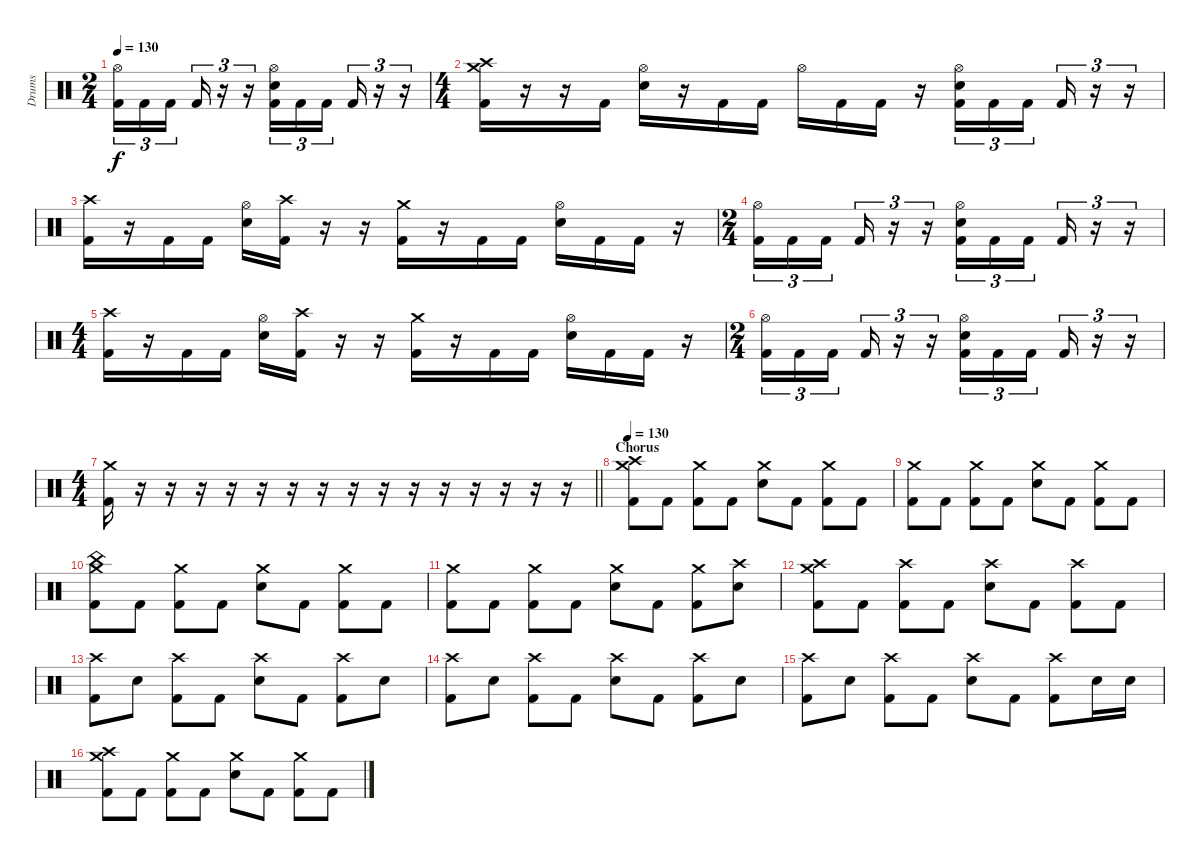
\track ("Drums" "Drums") {instrument percussion}
\staff {score}
\articulation defaults
\ts (2 4)
\tempo 130
\clef neutral
\ks c
("Hi-Hat (open)" "Kick (hit) 2").16{tu (3 2) dy f} "Kick (hit) 2".16{tu (3 2)} "Kick (hit) 2".16{tu (3 2) beam splitsecondary} "Kick (hit) 2".16{tu (3 2)} r.16{tu (3 2)} r.16{tu (3 2)} ("Hi-Hat (open)" "Snare (hit) 2" "Kick (hit) 2").16{tu (3 2)} "Kick (hit) 2".16{tu (3 2)} "Kick (hit) 2".16{tu (3 2) beam splitsecondary} "Kick (hit) 2".16{tu (3 2)} r.16{tu (3 2)} r.16{tu (3 2)} |
\ts (4 4)
("Crash medium (hit)" "Crash high (hit)" "Kick (hit) 2").16 r.16 r.16 "Kick (hit) 2".16 ("Hi-Hat (open)" "Snare (hit) 2").16 r.16 "Kick (hit) 2".16 "Kick (hit) 2".16 "Hi-Hat (open)".16 "Kick (hit) 2".16 "Kick (hit) 2".16 r.16 ("Hi-Hat (open)" "Snare (hit) 2" "Kick (hit) 2").16{tu (3 2)} "Kick (hit) 2".16{tu (3 2)} "Kick (hit) 2".16{tu (3 2) beam splitsecondary} "Kick (hit) 2".16{tu (3 2)} r.16{tu (3 2)} r.16{tu (3 2)} |
("Crash high (hit)" "Kick (hit) 2").16 r.16 "Kick (hit) 2".16 "Kick (hit) 2".16 ("Hi-Hat (open)" "Snare (hit) 2").16 ("Crash high (hit)" "Kick (hit) 2").16 r.16 r.16 ("Crash medium (hit)" "Kick (hit) 2").16 r.16 "Kick (hit) 2".16 "Kick (hit) 2".16 ("Hi-Hat (open)" "Snare (hit) 2").16 "Kick (hit) 2".16 "Kick (hit) 2".16 r.16 |
\ts (2 4)
("Hi-Hat (open)" "Kick (hit) 2").16{tu (3 2)} "Kick (hit) 2".16{tu (3 2)} "Kick (hit) 2".16{tu (3 2) beam splitsecondary} "Kick (hit) 2".16{tu (3 2)} r.16{tu (3 2)} r.16{tu (3 2)} ("Hi-Hat (open)" "Snare (hit) 2" "Kick (hit) 2").16{tu (3 2)} "Kick (hit) 2".16{tu (3 2)} "Kick (hit) 2".16{tu (3 2) beam splitsecondary} "Kick (hit) 2".16{tu (3 2)} r.16{tu (3 2)} r.16{tu (3 2)} |
\ts (4 4)
("Crash high (hit)" "Kick (hit) 2").16 r.16 "Kick (hit) 2".16 "Kick (hit) 2".16 ("Hi-Hat (open)" "Snare (hit) 2").16 ("Crash high (hit)" "Kick (hit) 2").16 r.16 r.16 ("Crash medium (hit)" "Kick (hit) 2").16 r.16 "Kick (hit) 2".16 "Kick (hit) 2".16 ("Hi-Hat (open)" "Snare (hit) 2").16 "Kick (hit) 2".16 "Kick (hit) 2".16 r.16 |
\ts (2 4)
("Hi-Hat (open)" "Kick (hit) 2").16{tu (3 2)} "Kick (hit) 2".16{tu (3 2)} "Kick (hit) 2".16{tu (3 2) beam splitsecondary} "Kick (hit) 2".16{tu (3 2)} r.16{tu (3 2)} r.16{tu (3 2)} ("Hi-Hat (open)" "Snare (hit) 2" "Kick (hit) 2").16{tu (3 2)} "Kick (hit) 2".16{tu (3 2)} "Kick (hit) 2".16{tu (3 2) beam splitsecondary} "Kick (hit) 2".16{tu (3 2)} r.16{tu (3 2)} r.16{tu (3 2)} |
\ts (4 4)
\barLineRight lightlight
("Crash medium (hit)" "Kick (hit) 2").16 r.16 r.16 r.16 r.16 r.16 r.16 r.16 r.16 r.16 r.16 r.16 r.16 r.16 r.16 r.16 |
\section ("" "Chorus")
\tempo 130
("Crash high (hit)" "Crash medium (hit)" "Kick (hit) 2").8 "Kick (hit) 2".8 ("Crash medium (hit)" "Kick (hit) 2").8 "Kick (hit) 2".8 ("Crash medium (hit)" "Snare (hit) 2").8 "Kick (hit) 2".8 ("Crash medium (hit)" "Kick (hit) 2").8 "Kick (hit) 2".8 |
("Crash medium (hit)" "Kick (hit) 2").8 "Kick (hit) 2".8 ("Crash medium (hit)" "Kick (hit) 2").8 "Kick (hit) 2".8 ("Crash medium (hit)" "Snare (hit) 2").8 "Kick (hit) 2".8 ("Crash medium (hit)" "Kick (hit) 2").8 "Kick (hit) 2".8 |
("China (hit)" "Crash medium (hit)" "Kick (hit) 2").8 "Kick (hit) 2".8 ("Crash medium (hit)" "Kick (hit) 2").8 "Kick (hit) 2".8 ("Crash medium (hit)" "Snare (hit) 2").8 "Kick (hit) 2".8 ("Crash medium (hit)" "Kick (hit) 2").8 "Kick (hit) 2".8 |
("Crash medium (hit)" "Kick (hit) 2").8 "Kick (hit) 2".8 ("Crash medium (hit)" "Kick (hit) 2").8 "Kick (hit) 2".8 ("Crash medium (hit)" "Snare (hit) 2").8 "Kick (hit) 2".8 ("Crash medium (hit)" "Kick (hit) 2").8 ("Crash high (hit)" "Snare (hit) 2").8 |
("Crash high (hit)" "Crash medium (hit)" "Kick (hit) 2").8 "Kick (hit) 2".8 ("Crash high (hit)" "Kick (hit) 2").8 "Kick (hit) 2".8 ("Crash high (hit)" "Snare (hit) 2").8 "Kick (hit) 2".8 ("Crash high (hit)" "Kick (hit) 2").8 "Kick (hit) 2".8 |
("Crash high (hit)" "Kick (hit) 2").8 "Snare (hit) 2".8 ("Crash high (hit)" "Kick (hit) 2").8 "Kick (hit) 2".8 ("Crash high (hit)" "Snare (hit) 2").8 "Kick (hit) 2".8 ("Crash high (hit)" "Kick (hit) 2").8 "Snare (hit) 2".8 |
("Crash high (hit)" "Kick (hit) 2").8 "Snare (hit) 2".8 ("Crash high (hit)" "Kick (hit) 2").8 "Kick (hit) 2".8 ("Crash high (hit)" "Snare (hit) 2").8 "Kick (hit) 2".8 ("Crash high (hit)" "Kick (hit) 2").8 "Snare (hit) 2".8 |
("Crash high (hit)" "Kick (hit) 2").8 "Snare (hit) 2".8 ("Crash high (hit)" "Kick (hit) 2").8 "Kick (hit) 2".8 ("Crash high (hit)" "Snare (hit) 2").8 "Kick (hit) 2".8 ("Crash high (hit)" "Kick (hit) 2").8 "Snare (hit) 2".16 "Snare (hit) 2".16 |
("Crash high (hit)" "Crash medium (hit)" "Kick (hit) 2").8 "Kick (hit) 2".8 ("Crash medium (hit)" "Kick (hit) 2").8 "Kick (hit) 2".8 ("Crash medium (hit)" "Snare (hit) 2").8 "Kick (hit) 2".8 ("Crash medium (hit)" "Kick (hit) 2").8 "Kick (hit) 2".8
